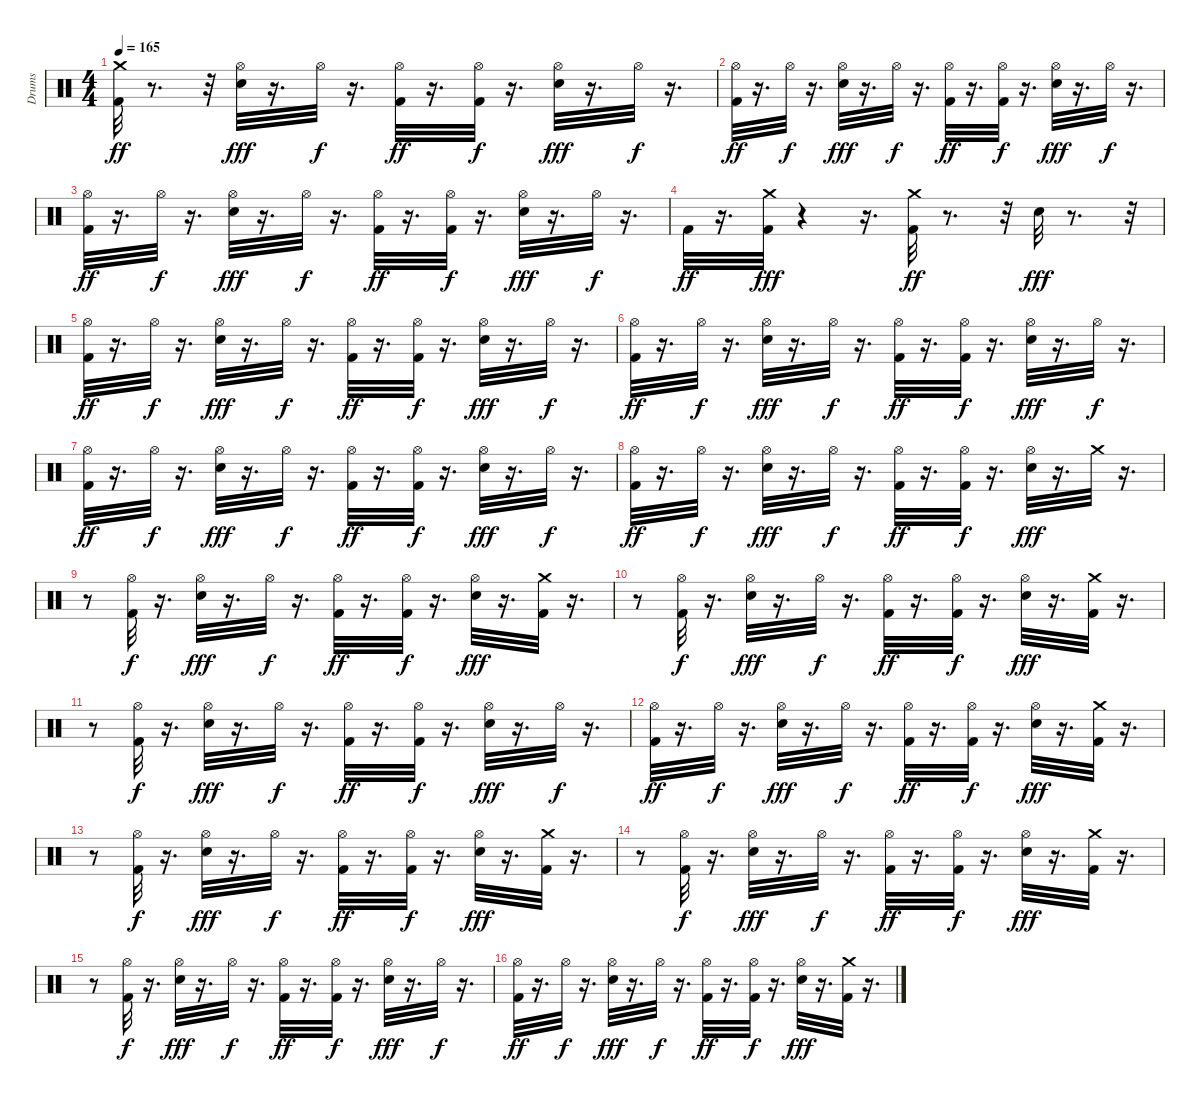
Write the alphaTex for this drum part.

\track ("Drums" "Drums") {instrument percussion}
\staff {score}
\articulation defaults
\ts (4 4)
\tempo 165
\clef neutral
\ks c
("Crash medium (hit)" "Kick (hit) 2").32{dy ff} r.8{d} r.32 ("Snare (hit) 2" "Hi-Hat (open)").32{dy fff} r.16{d} "Hi-Hat (open)".32{dy f} r.16{d} ("Kick (hit) 2" "Hi-Hat (open)").32{dy ff} r.16{d} ("Kick (hit) 2" "Hi-Hat (open)").32{dy f} r.16{d} ("Snare (hit) 2" "Hi-Hat (open)").32{dy fff} r.16{d} "Hi-Hat (open)".32{dy f} r.16{d} |
("Kick (hit) 2" "Hi-Hat (open)").32{dy ff} r.16{d} "Hi-Hat (open)".32{dy f} r.16{d} ("Snare (hit) 2" "Hi-Hat (open)").32{dy fff} r.16{d} "Hi-Hat (open)".32{dy f} r.16{d} ("Kick (hit) 2" "Hi-Hat (open)").32{dy ff} r.16{d} ("Kick (hit) 2" "Hi-Hat (open)").32{dy f} r.16{d} ("Snare (hit) 2" "Hi-Hat (open)").32{dy fff} r.16{d} "Hi-Hat (open)".32{dy f} r.16{d} |
("Kick (hit) 2" "Hi-Hat (open)").32{dy ff} r.16{d} "Hi-Hat (open)".32{dy f} r.16{d} ("Snare (hit) 2" "Hi-Hat (open)").32{dy fff} r.16{d} "Hi-Hat (open)".32{dy f} r.16{d} ("Kick (hit) 2" "Hi-Hat (open)").32{dy ff} r.16{d} ("Kick (hit) 2" "Hi-Hat (open)").32{dy f} r.16{d} ("Snare (hit) 2" "Hi-Hat (open)").32{dy fff} r.16{d} "Hi-Hat (open)".32{dy f} r.16{d} |
"Kick (hit) 2".32{dy ff} r.16{d} ("Kick (hit) 2" "Crash medium (hit)").32{dy fff} r.4 r.16{d} ("Crash medium (hit)" "Kick (hit) 2").32{dy ff} r.8{d} r.32 "Snare (hit) 2".32{dy fff} r.8{d} r.32 |
("Kick (hit) 2" "Hi-Hat (open)").32{dy ff} r.16{d} "Hi-Hat (open)".32{dy f} r.16{d} ("Snare (hit) 2" "Hi-Hat (open)").32{dy fff} r.16{d} "Hi-Hat (open)".32{dy f} r.16{d} ("Kick (hit) 2" "Hi-Hat (open)").32{dy ff} r.16{d} ("Kick (hit) 2" "Hi-Hat (open)").32{dy f} r.16{d} ("Snare (hit) 2" "Hi-Hat (open)").32{dy fff} r.16{d} "Hi-Hat (open)".32{dy f} r.16{d} |
("Kick (hit) 2" "Hi-Hat (open)").32{dy ff} r.16{d} "Hi-Hat (open)".32{dy f} r.16{d} ("Snare (hit) 2" "Hi-Hat (open)").32{dy fff} r.16{d} "Hi-Hat (open)".32{dy f} r.16{d} ("Kick (hit) 2" "Hi-Hat (open)").32{dy ff} r.16{d} ("Kick (hit) 2" "Hi-Hat (open)").32{dy f} r.16{d} ("Snare (hit) 2" "Hi-Hat (open)").32{dy fff} r.16{d} "Hi-Hat (open)".32{dy f} r.16{d} |
("Kick (hit) 2" "Hi-Hat (open)").32{dy ff} r.16{d} "Hi-Hat (open)".32{dy f} r.16{d} ("Snare (hit) 2" "Hi-Hat (open)").32{dy fff} r.16{d} "Hi-Hat (open)".32{dy f} r.16{d} ("Kick (hit) 2" "Hi-Hat (open)").32{dy ff} r.16{d} ("Kick (hit) 2" "Hi-Hat (open)").32{dy f} r.16{d} ("Snare (hit) 2" "Hi-Hat (open)").32{dy fff} r.16{d} "Hi-Hat (open)".32{dy f} r.16{d} |
("Kick (hit) 2" "Hi-Hat (open)").32{dy ff} r.16{d} "Hi-Hat (open)".32{dy f} r.16{d} ("Snare (hit) 2" "Hi-Hat (open)").32{dy fff} r.16{d} "Hi-Hat (open)".32{dy f} r.16{d} ("Kick (hit) 2" "Hi-Hat (open)").32{dy ff} r.16{d} ("Kick (hit) 2" "Hi-Hat (open)").32{dy f} r.16{d} ("Snare (hit) 2" "Hi-Hat (open)").32{dy fff} r.16{d} "Crash medium (hit)".32 r.16{d} |
r.8 ("Kick (hit) 2" "Hi-Hat (open)").32{dy f} r.16{d} ("Snare (hit) 2" "Hi-Hat (open)").32{dy fff} r.16{d} "Hi-Hat (open)".32{dy f} r.16{d} ("Kick (hit) 2" "Hi-Hat (open)").32{dy ff} r.16{d} ("Kick (hit) 2" "Hi-Hat (open)").32{dy f} r.16{d} ("Snare (hit) 2" "Hi-Hat (open)").32{dy fff} r.16{d} ("Kick (hit) 2" "Crash medium (hit)").32 r.16{d} |
r.8 ("Kick (hit) 2" "Hi-Hat (open)").32{dy f} r.16{d} ("Snare (hit) 2" "Hi-Hat (open)").32{dy fff} r.16{d} "Hi-Hat (open)".32{dy f} r.16{d} ("Kick (hit) 2" "Hi-Hat (open)").32{dy ff} r.16{d} ("Kick (hit) 2" "Hi-Hat (open)").32{dy f} r.16{d} ("Snare (hit) 2" "Hi-Hat (open)").32{dy fff} r.16{d} ("Kick (hit) 2" "Crash medium (hit)").32 r.16{d} |
r.8 ("Kick (hit) 2" "Hi-Hat (open)").32{dy f} r.16{d} ("Snare (hit) 2" "Hi-Hat (open)").32{dy fff} r.16{d} "Hi-Hat (open)".32{dy f} r.16{d} ("Kick (hit) 2" "Hi-Hat (open)").32{dy ff} r.16{d} ("Kick (hit) 2" "Hi-Hat (open)").32{dy f} r.16{d} ("Snare (hit) 2" "Hi-Hat (open)").32{dy fff} r.16{d} "Hi-Hat (open)".32{dy f} r.16{d} |
("Kick (hit) 2" "Hi-Hat (open)").32{dy ff} r.16{d} "Hi-Hat (open)".32{dy f} r.16{d} ("Snare (hit) 2" "Hi-Hat (open)").32{dy fff} r.16{d} "Hi-Hat (open)".32{dy f} r.16{d} ("Kick (hit) 2" "Hi-Hat (open)").32{dy ff} r.16{d} ("Kick (hit) 2" "Hi-Hat (open)").32{dy f} r.16{d} ("Snare (hit) 2" "Hi-Hat (open)").32{dy fff} r.16{d} ("Kick (hit) 2" "Crash medium (hit)").32 r.16{d} |
r.8 ("Kick (hit) 2" "Hi-Hat (open)").32{dy f} r.16{d} ("Snare (hit) 2" "Hi-Hat (open)").32{dy fff} r.16{d} "Hi-Hat (open)".32{dy f} r.16{d} ("Kick (hit) 2" "Hi-Hat (open)").32{dy ff} r.16{d} ("Kick (hit) 2" "Hi-Hat (open)").32{dy f} r.16{d} ("Snare (hit) 2" "Hi-Hat (open)").32{dy fff} r.16{d} ("Kick (hit) 2" "Crash medium (hit)").32 r.16{d} |
r.8 ("Kick (hit) 2" "Hi-Hat (open)").32{dy f} r.16{d} ("Snare (hit) 2" "Hi-Hat (open)").32{dy fff} r.16{d} "Hi-Hat (open)".32{dy f} r.16{d} ("Kick (hit) 2" "Hi-Hat (open)").32{dy ff} r.16{d} ("Kick (hit) 2" "Hi-Hat (open)").32{dy f} r.16{d} ("Snare (hit) 2" "Hi-Hat (open)").32{dy fff} r.16{d} ("Kick (hit) 2" "Crash medium (hit)").32 r.16{d} |
r.8 ("Kick (hit) 2" "Hi-Hat (open)").32{dy f} r.16{d} ("Snare (hit) 2" "Hi-Hat (open)").32{dy fff} r.16{d} "Hi-Hat (open)".32{dy f} r.16{d} ("Kick (hit) 2" "Hi-Hat (open)").32{dy ff} r.16{d} ("Kick (hit) 2" "Hi-Hat (open)").32{dy f} r.16{d} ("Snare (hit) 2" "Hi-Hat (open)").32{dy fff} r.16{d} "Hi-Hat (open)".32{dy f} r.16{d} |
("Kick (hit) 2" "Hi-Hat (open)").32{dy ff} r.16{d} "Hi-Hat (open)".32{dy f} r.16{d} ("Snare (hit) 2" "Hi-Hat (open)").32{dy fff} r.16{d} "Hi-Hat (open)".32{dy f} r.16{d} ("Kick (hit) 2" "Hi-Hat (open)").32{dy ff} r.16{d} ("Kick (hit) 2" "Hi-Hat (open)").32{dy f} r.16{d} ("Snare (hit) 2" "Hi-Hat (open)").32{dy fff} r.16{d} ("Kick (hit) 2" "Crash medium (hit)").32 r.16{d}
